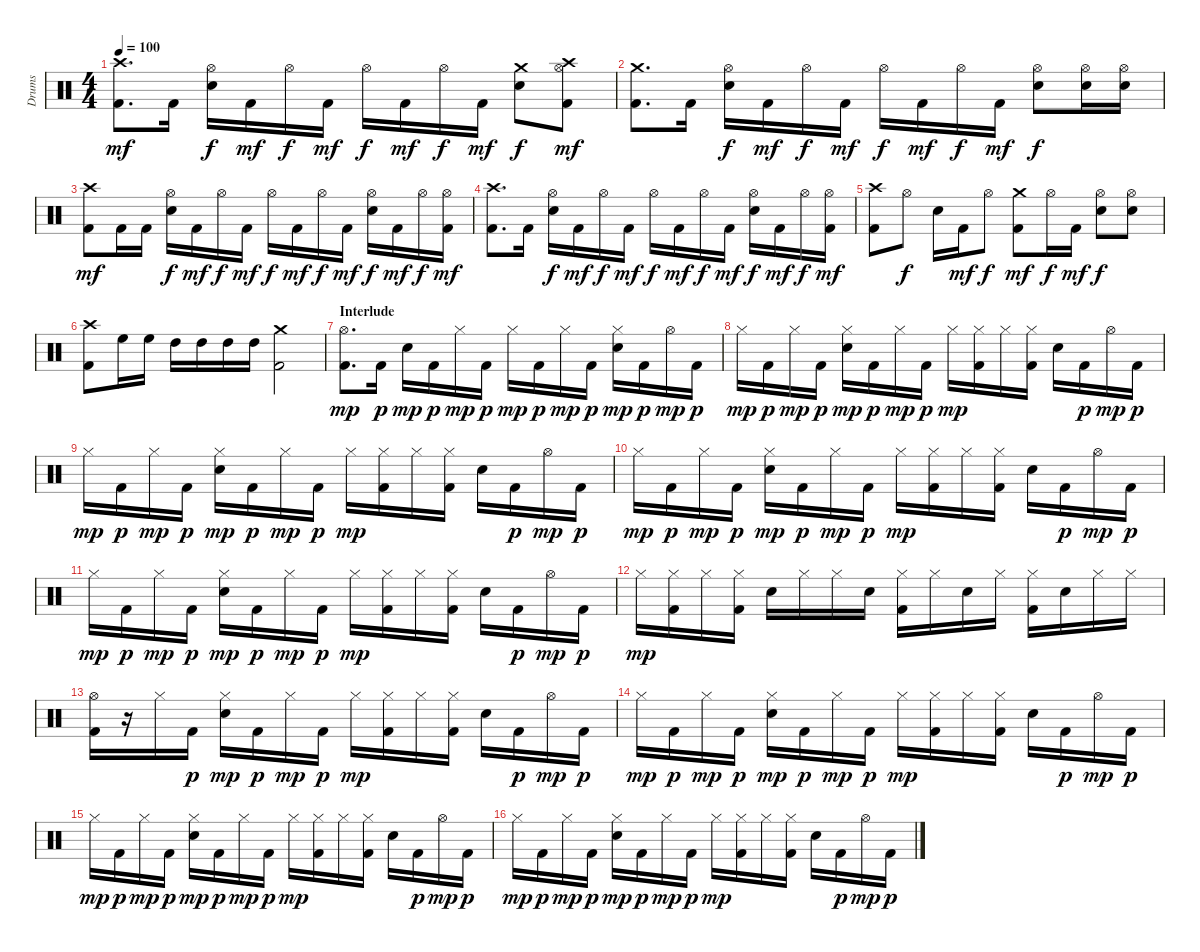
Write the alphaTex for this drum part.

\track ("Drums" "Drums") {instrument percussion}
\staff {score}
\articulation defaults
\ts (4 4)
\tempo 100
\clef neutral
\ks c
("Kick (hit) 2" "Crash high (hit)").8{d dy mf} "Kick (hit) 2".16 ("Snare (hit) 2" "Hi-Hat (open)").16{dy f} "Kick (hit) 2".16{dy mf} "Hi-Hat (open)".16{dy f} "Kick (hit) 2".16{dy mf} "Hi-Hat (open)".16{dy f} "Kick (hit) 2".16{dy mf} "Hi-Hat (open)".16{dy f} "Kick (hit) 2".16{dy mf} ("Snare (hit) 2" "Crash medium (hit)").8{dy f} ("Kick (hit) 2" "Hi-Hat (open)" "Crash high (hit)").8{dy mf} |
("Kick (hit) 2" "Crash medium (hit)").8{d} "Kick (hit) 2".16 ("Snare (hit) 2" "Hi-Hat (open)").16{dy f} "Kick (hit) 2".16{dy mf} "Hi-Hat (open)".16{dy f} "Kick (hit) 2".16{dy mf} "Hi-Hat (open)".16{dy f} "Kick (hit) 2".16{dy mf} "Hi-Hat (open)".16{dy f} "Kick (hit) 2".16{dy mf} ("Snare (hit) 2" "Hi-Hat (open)").8{dy f} ("Snare (hit) 2" "Hi-Hat (open)").16 ("Snare (hit) 2" "Hi-Hat (open)").16 |
("Kick (hit) 2" "Crash high (hit)").8{dy mf} "Kick (hit) 2".16 "Kick (hit) 2".16 ("Snare (hit) 2" "Hi-Hat (open)").16{dy f} "Kick (hit) 2".16{dy mf} "Hi-Hat (open)".16{dy f} "Kick (hit) 2".16{dy mf} "Hi-Hat (open)".16{dy f} "Kick (hit) 2".16{dy mf} "Hi-Hat (open)".16{dy f} "Kick (hit) 2".16{dy mf} ("Snare (hit) 2" "Hi-Hat (open)").16{dy f} "Kick (hit) 2".16{dy mf} "Hi-Hat (open)".16{dy f} ("Kick (hit) 2" "Hi-Hat (open)").16{dy mf} |
("Kick (hit) 2" "Crash high (hit)").8{d} "Kick (hit) 2".16 ("Snare (hit) 2" "Hi-Hat (open)").16{dy f} "Kick (hit) 2".16{dy mf} "Hi-Hat (open)".16{dy f} "Kick (hit) 2".16{dy mf} "Hi-Hat (open)".16{dy f} "Kick (hit) 2".16{dy mf} "Hi-Hat (open)".16{dy f} "Kick (hit) 2".16{dy mf} ("Snare (hit) 2" "Hi-Hat (open)").16{dy f} "Kick (hit) 2".16{dy mf} "Hi-Hat (open)".16{dy f} ("Kick (hit) 2" "Hi-Hat (open)").16{dy mf} |
("Kick (hit) 2" "Crash high (hit)").8 "Hi-Hat (open)".8{dy f} "Snare (hit) 2".16 "Kick (hit) 2".16{dy mf} "Hi-Hat (open)".8{dy f} ("Kick (hit) 2" "Crash medium (hit)").8{dy mf} "Hi-Hat (open)".16{dy f} "Kick (hit) 2".16{dy mf} ("Snare (hit) 2" "Hi-Hat (open)").8{dy f} ("Snare (hit) 2" "Hi-Hat (open)").8 |
("Kick (hit) 2" "Crash high (hit)").8 "High Floor Tom (hit)".16 "High Floor Tom (hit)".16 "High Tom (hit)".16 "High Tom (hit)".16 "High Tom (hit)".16 "High Tom (hit)".16 ("Kick (hit) 2" "Crash medium (hit)").2 |
\section ("" "Interlude")
("Kick (hit) 2" "Hi-Hat (open)").8{d dy mp} "Kick (hit) 2".16{dy p} "Snare (hit) 2".16{dy mp} "Kick (hit) 2".16{dy p} "Hi-Hat (closed)".16{dy mp} "Kick (hit) 2".16{dy p} "Hi-Hat (closed)".16{dy mp} "Kick (hit) 2".16{dy p} "Hi-Hat (closed)".16{dy mp} "Kick (hit) 2".16{dy p} ("Snare (hit) 2" "Hi-Hat (closed)").16{dy mp} "Kick (hit) 2".16{dy p} "Hi-Hat (open)".16{dy mp} "Kick (hit) 2".16{dy p} |
"Hi-Hat (closed)".16{dy mp} "Kick (hit) 2".16{dy p} "Hi-Hat (closed)".16{dy mp} "Kick (hit) 2".16{dy p} ("Snare (hit) 2" "Hi-Hat (closed)").16{dy mp} "Kick (hit) 2".16{dy p} "Hi-Hat (closed)".16{dy mp} "Kick (hit) 2".16{dy p} "Hi-Hat (closed)".16{dy mp} ("Kick (hit) 2" "Hi-Hat (closed)").16 "Hi-Hat (closed)".16 ("Kick (hit) 2" "Hi-Hat (closed)").16 "Snare (hit) 2".16 "Kick (hit) 2".16{dy p} "Hi-Hat (open)".16{dy mp} "Kick (hit) 2".16{dy p} |
"Hi-Hat (closed)".16{dy mp} "Kick (hit) 2".16{dy p} "Hi-Hat (closed)".16{dy mp} "Kick (hit) 2".16{dy p} ("Snare (hit) 2" "Hi-Hat (closed)").16{dy mp} "Kick (hit) 2".16{dy p} "Hi-Hat (closed)".16{dy mp} "Kick (hit) 2".16{dy p} "Hi-Hat (closed)".16{dy mp} ("Kick (hit) 2" "Hi-Hat (closed)").16 "Hi-Hat (closed)".16 ("Kick (hit) 2" "Hi-Hat (closed)").16 "Snare (hit) 2".16 "Kick (hit) 2".16{dy p} "Hi-Hat (open)".16{dy mp} "Kick (hit) 2".16{dy p} |
"Hi-Hat (closed)".16{dy mp} "Kick (hit) 2".16{dy p} "Hi-Hat (closed)".16{dy mp} "Kick (hit) 2".16{dy p} ("Snare (hit) 2" "Hi-Hat (closed)").16{dy mp} "Kick (hit) 2".16{dy p} "Hi-Hat (closed)".16{dy mp} "Kick (hit) 2".16{dy p} "Hi-Hat (closed)".16{dy mp} ("Kick (hit) 2" "Hi-Hat (closed)").16 "Hi-Hat (closed)".16 ("Kick (hit) 2" "Hi-Hat (closed)").16 "Snare (hit) 2".16 "Kick (hit) 2".16{dy p} "Hi-Hat (open)".16{dy mp} "Kick (hit) 2".16{dy p} |
"Hi-Hat (closed)".16{dy mp} "Kick (hit) 2".16{dy p} "Hi-Hat (closed)".16{dy mp} "Kick (hit) 2".16{dy p} ("Snare (hit) 2" "Hi-Hat (closed)").16{dy mp} "Kick (hit) 2".16{dy p} "Hi-Hat (closed)".16{dy mp} "Kick (hit) 2".16{dy p} "Hi-Hat (closed)".16{dy mp} ("Kick (hit) 2" "Hi-Hat (closed)").16 "Hi-Hat (closed)".16 ("Kick (hit) 2" "Hi-Hat (closed)").16 "Snare (hit) 2".16 "Kick (hit) 2".16{dy p} "Hi-Hat (open)".16{dy mp} "Kick (hit) 2".16{dy p} |
"Hi-Hat (closed)".16{dy mp} ("Kick (hit) 2" "Hi-Hat (closed)").16 "Hi-Hat (closed)".16 ("Kick (hit) 2" "Hi-Hat (closed)").16 "Snare (hit) 2".16 "Hi-Hat (closed)".16 "Hi-Hat (closed)".16 "Snare (hit) 2".16 ("Kick (hit) 2" "Hi-Hat (closed)").16 "Hi-Hat (closed)".16 "Snare (hit) 2".16 "Hi-Hat (closed)".16 ("Kick (hit) 2" "Hi-Hat (closed)").16 "Snare (hit) 2".16 "Hi-Hat (closed)".16 "Hi-Hat (closed)".16 |
("Kick (hit) 2" "Hi-Hat (open)").16 r.16 "Hi-Hat (closed)".16 "Kick (hit) 2".16{dy p} ("Snare (hit) 2" "Hi-Hat (closed)").16{dy mp} "Kick (hit) 2".16{dy p} "Hi-Hat (closed)".16{dy mp} "Kick (hit) 2".16{dy p} "Hi-Hat (closed)".16{dy mp} ("Kick (hit) 2" "Hi-Hat (closed)").16 "Hi-Hat (closed)".16 ("Kick (hit) 2" "Hi-Hat (closed)").16 "Snare (hit) 2".16 "Kick (hit) 2".16{dy p} "Hi-Hat (open)".16{dy mp} "Kick (hit) 2".16{dy p} |
"Hi-Hat (closed)".16{dy mp} "Kick (hit) 2".16{dy p} "Hi-Hat (closed)".16{dy mp} "Kick (hit) 2".16{dy p} ("Snare (hit) 2" "Hi-Hat (closed)").16{dy mp} "Kick (hit) 2".16{dy p} "Hi-Hat (closed)".16{dy mp} "Kick (hit) 2".16{dy p} "Hi-Hat (closed)".16{dy mp} ("Kick (hit) 2" "Hi-Hat (closed)").16 "Hi-Hat (closed)".16 ("Kick (hit) 2" "Hi-Hat (closed)").16 "Snare (hit) 2".16 "Kick (hit) 2".16{dy p} "Hi-Hat (open)".16{dy mp} "Kick (hit) 2".16{dy p} |
"Hi-Hat (closed)".16{dy mp} "Kick (hit) 2".16{dy p} "Hi-Hat (closed)".16{dy mp} "Kick (hit) 2".16{dy p} ("Snare (hit) 2" "Hi-Hat (closed)").16{dy mp} "Kick (hit) 2".16{dy p} "Hi-Hat (closed)".16{dy mp} "Kick (hit) 2".16{dy p} "Hi-Hat (closed)".16{dy mp} ("Kick (hit) 2" "Hi-Hat (closed)").16 "Hi-Hat (closed)".16 ("Kick (hit) 2" "Hi-Hat (closed)").16 "Snare (hit) 2".16 "Kick (hit) 2".16{dy p} "Hi-Hat (open)".16{dy mp} "Kick (hit) 2".16{dy p} |
"Hi-Hat (closed)".16{dy mp} "Kick (hit) 2".16{dy p} "Hi-Hat (closed)".16{dy mp} "Kick (hit) 2".16{dy p} ("Snare (hit) 2" "Hi-Hat (closed)").16{dy mp} "Kick (hit) 2".16{dy p} "Hi-Hat (closed)".16{dy mp} "Kick (hit) 2".16{dy p} "Hi-Hat (closed)".16{dy mp} ("Kick (hit) 2" "Hi-Hat (closed)").16 "Hi-Hat (closed)".16 ("Kick (hit) 2" "Hi-Hat (closed)").16 "Snare (hit) 2".16 "Kick (hit) 2".16{dy p} "Hi-Hat (open)".16{dy mp} "Kick (hit) 2".16{dy p}
